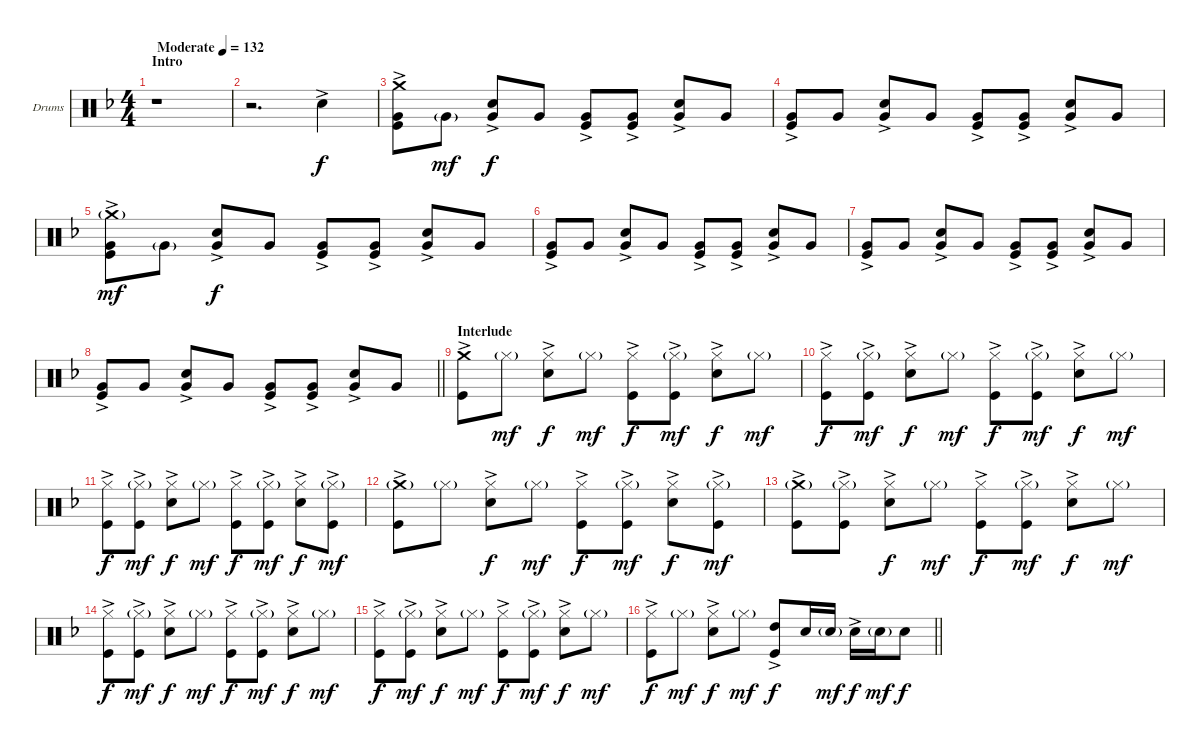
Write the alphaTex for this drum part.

\bracketExtendMode groupsimilarinstruments
\firstSystemTrackNameOrientation horizontal
\otherSystemsTrackNameOrientation horizontal
\track ("Drumkit" "Drums") {instrument percussion}
\staff {score}
\articulation defaults
\ts (4 4)
\beaming (8 2 2 2 2)
\section ("" "Intro")
\tempo (132 "Moderate")
\clef neutral
\ks f
r.1{dy f} |
r.2{d} "Snare (hit) 2"{ac}.4 |
("Crash medium (hit)" "Very Low Tom (hit)"{ac} "Kick (hit)"{ac}).8 "Very Low Tom (hit)"{g}.8{dy mf} ("Snare (hit) 2"{ac} "Very Low Tom (hit)"{ac}).8{dy f} "Very Low Tom (hit)".8 ("Very Low Tom (hit)"{ac} "Kick (hit)"{ac}).8 ("Very Low Tom (hit)" "Kick (hit)"{ac}).8 ("Snare (hit) 2"{ac} "Very Low Tom (hit)"{ac}).8 "Very Low Tom (hit)".8 |
("Very Low Tom (hit)"{ac} "Kick (hit)"{ac}).8 "Very Low Tom (hit)".8 ("Snare (hit) 2"{ac} "Very Low Tom (hit)"{ac}).8 "Very Low Tom (hit)".8 ("Very Low Tom (hit)"{ac} "Kick (hit)"{ac}).8 ("Very Low Tom (hit)" "Kick (hit)"{ac}).8 ("Snare (hit) 2"{ac} "Very Low Tom (hit)"{ac}).8 "Very Low Tom (hit)".8 |
("Crash medium (hit)"{g} "Very Low Tom (hit)"{ac} "Kick (hit)"{ac}).8{dy mf} "Very Low Tom (hit)"{g}.8 ("Snare (hit) 2"{ac} "Very Low Tom (hit)"{ac}).8{dy f} "Very Low Tom (hit)".8 ("Very Low Tom (hit)"{ac} "Kick (hit)"{ac}).8 ("Very Low Tom (hit)" "Kick (hit)"{ac}).8 ("Snare (hit) 2"{ac} "Very Low Tom (hit)"{ac}).8 "Very Low Tom (hit)".8 |
("Very Low Tom (hit)"{ac} "Kick (hit)"{ac}).8 "Very Low Tom (hit)".8 ("Snare (hit) 2"{ac} "Very Low Tom (hit)"{ac}).8 "Very Low Tom (hit)".8 ("Very Low Tom (hit)"{ac} "Kick (hit)"{ac}).8 ("Very Low Tom (hit)" "Kick (hit)"{ac}).8 ("Snare (hit) 2"{ac} "Very Low Tom (hit)"{ac}).8 "Very Low Tom (hit)".8 |
("Very Low Tom (hit)"{ac} "Kick (hit)"{ac}).8 "Very Low Tom (hit)".8 ("Snare (hit) 2"{ac} "Very Low Tom (hit)"{ac}).8 "Very Low Tom (hit)".8 ("Very Low Tom (hit)"{ac} "Kick (hit)"{ac}).8 ("Very Low Tom (hit)" "Kick (hit)"{ac}).8 ("Snare (hit) 2"{ac} "Very Low Tom (hit)"{ac}).8 "Very Low Tom (hit)".8 |
\barLineRight lightlight
("Very Low Tom (hit)"{ac} "Kick (hit)"{ac}).8 "Very Low Tom (hit)".8 ("Snare (hit) 2"{ac} "Very Low Tom (hit)"{ac}).8 "Very Low Tom (hit)".8 ("Very Low Tom (hit)"{ac} "Kick (hit)"{ac}).8 ("Very Low Tom (hit)" "Kick (hit)"{ac}).8 ("Snare (hit) 2"{ac} "Very Low Tom (hit)"{ac}).8 "Very Low Tom (hit)".8 |
\section ("" "Interlude")
("Crash medium (hit)" "Kick (hit)"{ac}).8 "Hi-Hat (closed)"{g}.8{dy mf} ("Hi-Hat (closed)" "Snare (hit) 2"{ac}).8{dy f} "Hi-Hat (closed)"{g}.8{dy mf} ("Hi-Hat (closed)" "Kick (hit)"{ac}).8{dy f} ("Hi-Hat (closed)"{g} "Kick (hit)"{ac}).8{dy mf} ("Hi-Hat (closed)" "Snare (hit) 2"{ac}).8{dy f} "Hi-Hat (closed)"{g}.8{dy mf} |
("Hi-Hat (closed)" "Kick (hit)"{ac}).8{dy f} ("Hi-Hat (closed)"{g} "Kick (hit)"{ac}).8{dy mf} ("Hi-Hat (closed)" "Snare (hit) 2"{ac}).8{dy f} "Hi-Hat (closed)"{g}.8{dy mf} ("Hi-Hat (closed)" "Kick (hit)"{ac}).8{dy f} ("Hi-Hat (closed)"{g} "Kick (hit)"{ac}).8{dy mf} ("Hi-Hat (closed)" "Snare (hit) 2"{ac}).8{dy f} "Hi-Hat (closed)"{g}.8{dy mf} |
("Hi-Hat (closed)" "Kick (hit)"{ac}).8{dy f} ("Hi-Hat (closed)"{g} "Kick (hit)"{ac}).8{dy mf} ("Hi-Hat (closed)" "Snare (hit) 2"{ac}).8{dy f} "Hi-Hat (closed)"{g}.8{dy mf} ("Hi-Hat (closed)" "Kick (hit)"{ac}).8{dy f} ("Hi-Hat (closed)"{g} "Kick (hit)"{ac}).8{dy mf} ("Hi-Hat (closed)" "Snare (hit) 2"{ac}).8{dy f} ("Hi-Hat (closed)"{g} "Kick (hit)"{ac}).8{dy mf} |
("Crash medium (hit)"{g} "Kick (hit)"{ac}).8 "Hi-Hat (closed)"{g}.8 ("Hi-Hat (closed)" "Snare (hit) 2"{ac}).8{dy f} "Hi-Hat (closed)"{g}.8{dy mf} ("Hi-Hat (closed)" "Kick (hit)"{ac}).8{dy f} ("Hi-Hat (closed)"{g} "Kick (hit)"{ac}).8{dy mf} ("Hi-Hat (closed)" "Snare (hit) 2"{ac}).8{dy f} ("Hi-Hat (closed)"{g} "Kick (hit)"{ac}).8{dy mf} |
("Crash medium (hit)"{g} "Kick (hit)"{ac}).8 ("Hi-Hat (closed)"{g} "Kick (hit)"{ac}).8 ("Hi-Hat (closed)" "Snare (hit) 2"{ac}).8{dy f} "Hi-Hat (closed)"{g}.8{dy mf} ("Hi-Hat (closed)" "Kick (hit)"{ac}).8{dy f} ("Hi-Hat (closed)"{g} "Kick (hit)"{ac}).8{dy mf} ("Hi-Hat (closed)" "Snare (hit) 2"{ac}).8{dy f} "Hi-Hat (closed)"{g}.8{dy mf} |
("Hi-Hat (closed)" "Kick (hit)"{ac}).8{dy f} ("Hi-Hat (closed)"{g} "Kick (hit)"{ac}).8{dy mf} ("Hi-Hat (closed)" "Snare (hit) 2"{ac}).8{dy f} "Hi-Hat (closed)"{g}.8{dy mf} ("Hi-Hat (closed)" "Kick (hit)"{ac}).8{dy f} ("Hi-Hat (closed)"{g} "Kick (hit)"{ac}).8{dy mf} ("Hi-Hat (closed)" "Snare (hit) 2"{ac}).8{dy f} "Hi-Hat (closed)"{g}.8{dy mf} |
("Hi-Hat (closed)" "Kick (hit)"{ac}).8{dy f} ("Hi-Hat (closed)"{g} "Kick (hit)"{ac}).8{dy mf} ("Hi-Hat (closed)" "Snare (hit) 2"{ac}).8{dy f} "Hi-Hat (closed)"{g}.8{dy mf} ("Hi-Hat (closed)" "Kick (hit)"{ac}).8{dy f} ("Hi-Hat (closed)"{g} "Kick (hit)"{ac}).8{dy mf} ("Hi-Hat (closed)" "Snare (hit) 2"{ac}).8{dy f} "Hi-Hat (closed)"{g}.8{dy mf} |
\barLineRight lightlight
("Hi-Hat (closed)" "Kick (hit)"{ac}).8{dy f} "Hi-Hat (closed)"{g}.8{dy mf} ("Hi-Hat (closed)" "Snare (hit) 2"{ac}).8{dy f} "Hi-Hat (closed)"{g}.8{dy mf} ("High Tom (hit)"{ac} "Kick (hit)"{ac}).8{dy f} "Snare (hit) 2".16 "Snare (hit) 2"{g}.16{dy mf} "Snare (hit) 2"{ac}.16{dy f} "Snare (hit) 2"{g}.16{dy mf} "Snare (hit) 2".8{dy f}
